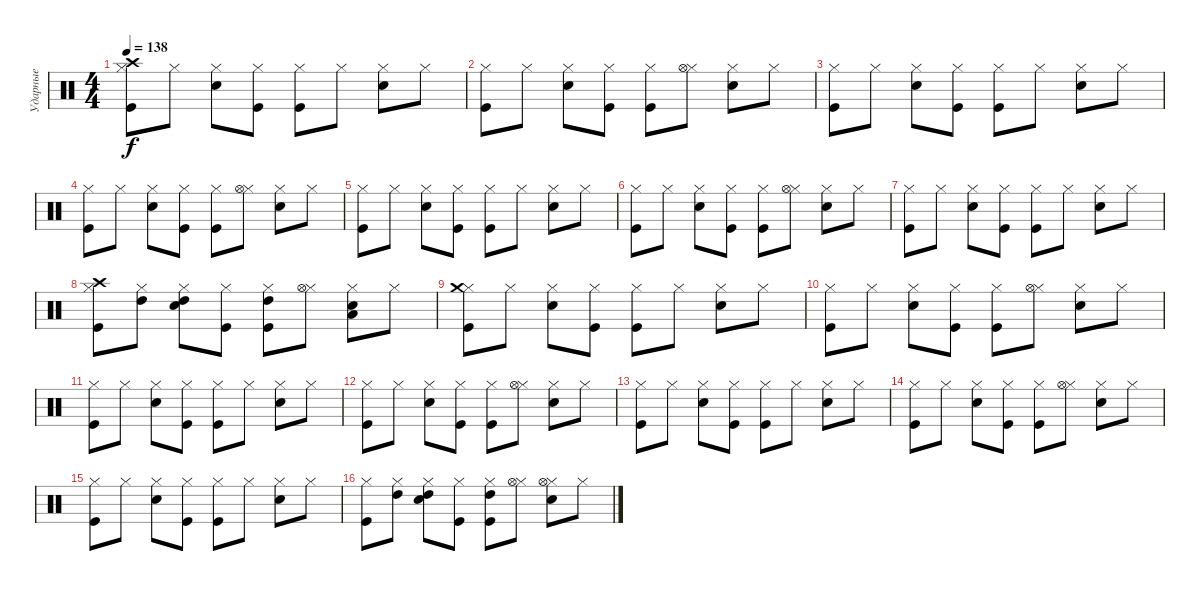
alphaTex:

\track ("Ударные" "Ударные") {instrument percussion}
\staff {score}
\articulation defaults
\ts (4 4)
\tempo 138
\clef neutral
\ks c
("Hi-Hat (closed)" "Kick (hit)" "Crash high (hit)").8{dy f} "Hi-Hat (closed)".8 ("Hi-Hat (closed)" "Snare (hit) 2").8 ("Hi-Hat (closed)" "Kick (hit)").8 ("Hi-Hat (closed)" "Kick (hit)").8 "Hi-Hat (closed)".8 ("Hi-Hat (closed)" "Snare (hit) 2").8 "Hi-Hat (closed)".8 |
("Hi-Hat (closed)" "Kick (hit)").8 "Hi-Hat (closed)".8 ("Hi-Hat (closed)" "Snare (hit) 2").8 ("Hi-Hat (closed)" "Kick (hit)").8 ("Hi-Hat (closed)" "Kick (hit)").8 ("Hi-Hat (closed)" "Hi-Hat (open)").8 ("Hi-Hat (closed)" "Snare (hit) 2").8 "Hi-Hat (closed)".8 |
("Hi-Hat (closed)" "Kick (hit)").8 "Hi-Hat (closed)".8 ("Hi-Hat (closed)" "Snare (hit) 2").8 ("Hi-Hat (closed)" "Kick (hit)").8 ("Hi-Hat (closed)" "Kick (hit)").8 "Hi-Hat (closed)".8 ("Hi-Hat (closed)" "Snare (hit) 2").8 "Hi-Hat (closed)".8 |
("Hi-Hat (closed)" "Kick (hit)").8 "Hi-Hat (closed)".8 ("Hi-Hat (closed)" "Snare (hit) 2").8 ("Hi-Hat (closed)" "Kick (hit)").8 ("Hi-Hat (closed)" "Kick (hit)").8 ("Hi-Hat (closed)" "Hi-Hat (open)").8 ("Hi-Hat (closed)" "Snare (hit) 2").8 "Hi-Hat (closed)".8 |
("Hi-Hat (closed)" "Kick (hit)").8 "Hi-Hat (closed)".8 ("Hi-Hat (closed)" "Snare (hit) 2").8 ("Hi-Hat (closed)" "Kick (hit)").8 ("Hi-Hat (closed)" "Kick (hit)").8 "Hi-Hat (closed)".8 ("Hi-Hat (closed)" "Snare (hit) 2").8 "Hi-Hat (closed)".8 |
("Hi-Hat (closed)" "Kick (hit)").8 "Hi-Hat (closed)".8 ("Hi-Hat (closed)" "Snare (hit) 2").8 ("Hi-Hat (closed)" "Kick (hit)").8 ("Hi-Hat (closed)" "Kick (hit)").8 ("Hi-Hat (closed)" "Hi-Hat (open)").8 ("Hi-Hat (closed)" "Snare (hit) 2").8 "Hi-Hat (closed)".8 |
("Hi-Hat (closed)" "Kick (hit)").8 "Hi-Hat (closed)".8 ("Hi-Hat (closed)" "Snare (hit) 2").8 ("Hi-Hat (closed)" "Kick (hit)").8 ("Hi-Hat (closed)" "Kick (hit)").8 "Hi-Hat (closed)".8 ("Hi-Hat (closed)" "Snare (hit) 2").8 "Hi-Hat (closed)".8 |
("Hi-Hat (closed)" "Kick (hit)" "Crash high (hit)").8 ("Hi-Hat (closed)" "High Tom (hit)").8 ("Hi-Hat (closed)" "Snare (hit) 2" "High Tom (hit)").8 ("Hi-Hat (closed)" "Kick (hit)").8 ("Hi-Hat (closed)" "Kick (hit)" "High Tom (hit)").8 ("Hi-Hat (closed)" "Hi-Hat (open)").8 ("Hi-Hat (closed)" "Snare (hit) 2" "Low Tom (hit)").8 "Hi-Hat (closed)".8 |
("Hi-Hat (closed)" "Kick (hit)" "Crash medium (hit)").8 "Hi-Hat (closed)".8 ("Hi-Hat (closed)" "Snare (hit) 2").8 ("Hi-Hat (closed)" "Kick (hit)").8 ("Hi-Hat (closed)" "Kick (hit)").8 "Hi-Hat (closed)".8 ("Hi-Hat (closed)" "Snare (hit) 2").8 "Hi-Hat (closed)".8 |
("Hi-Hat (closed)" "Kick (hit)").8 "Hi-Hat (closed)".8 ("Hi-Hat (closed)" "Snare (hit) 2").8 ("Hi-Hat (closed)" "Kick (hit)").8 ("Hi-Hat (closed)" "Kick (hit)").8 ("Hi-Hat (closed)" "Hi-Hat (open)").8 ("Hi-Hat (closed)" "Snare (hit) 2").8 "Hi-Hat (closed)".8 |
("Hi-Hat (closed)" "Kick (hit)").8 "Hi-Hat (closed)".8 ("Hi-Hat (closed)" "Snare (hit) 2").8 ("Hi-Hat (closed)" "Kick (hit)").8 ("Hi-Hat (closed)" "Kick (hit)").8 "Hi-Hat (closed)".8 ("Hi-Hat (closed)" "Snare (hit) 2").8 "Hi-Hat (closed)".8 |
("Hi-Hat (closed)" "Kick (hit)").8 "Hi-Hat (closed)".8 ("Hi-Hat (closed)" "Snare (hit) 2").8 ("Hi-Hat (closed)" "Kick (hit)").8 ("Hi-Hat (closed)" "Kick (hit)").8 ("Hi-Hat (closed)" "Hi-Hat (open)").8 ("Hi-Hat (closed)" "Snare (hit) 2").8 "Hi-Hat (closed)".8 |
("Hi-Hat (closed)" "Kick (hit)").8 "Hi-Hat (closed)".8 ("Hi-Hat (closed)" "Snare (hit) 2").8 ("Hi-Hat (closed)" "Kick (hit)").8 ("Hi-Hat (closed)" "Kick (hit)").8 "Hi-Hat (closed)".8 ("Hi-Hat (closed)" "Snare (hit) 2").8 "Hi-Hat (closed)".8 |
("Hi-Hat (closed)" "Kick (hit)").8 "Hi-Hat (closed)".8 ("Hi-Hat (closed)" "Snare (hit) 2").8 ("Hi-Hat (closed)" "Kick (hit)").8 ("Hi-Hat (closed)" "Kick (hit)").8 ("Hi-Hat (closed)" "Hi-Hat (open)").8 ("Hi-Hat (closed)" "Snare (hit) 2").8 "Hi-Hat (closed)".8 |
("Hi-Hat (closed)" "Kick (hit)").8 "Hi-Hat (closed)".8 ("Hi-Hat (closed)" "Snare (hit) 2").8 ("Hi-Hat (closed)" "Kick (hit)").8 ("Hi-Hat (closed)" "Kick (hit)").8 "Hi-Hat (closed)".8 ("Hi-Hat (closed)" "Snare (hit) 2").8 "Hi-Hat (closed)".8 |
("Hi-Hat (closed)" "Kick (hit)").8 ("Hi-Hat (closed)" "High Tom (hit)").8 ("Hi-Hat (closed)" "Snare (hit) 2" "High Tom (hit)").8 ("Hi-Hat (closed)" "Kick (hit)").8 ("Hi-Hat (closed)" "Kick (hit)" "High Tom (hit)").8 ("Hi-Hat (closed)" "Hi-Hat (open)").8 ("Hi-Hat (closed)" "Snare (hit) 2" "Hi-Hat (open)").8 "Hi-Hat (closed)".8
